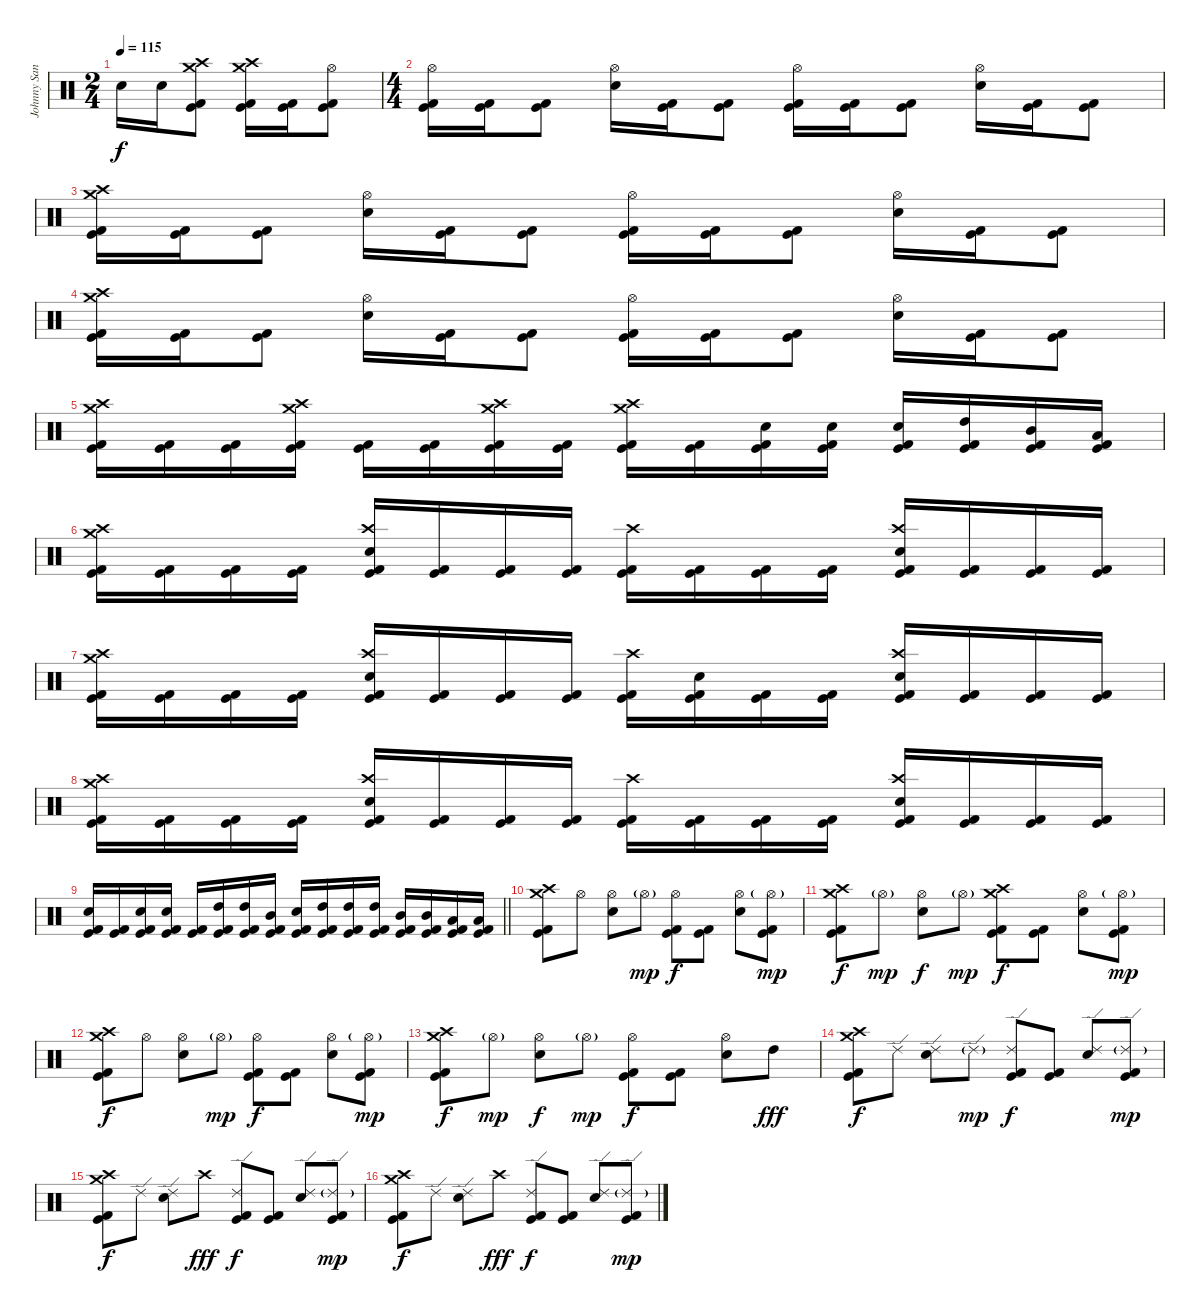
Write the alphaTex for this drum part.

\track ("Johnny Sandin" "Johnny San") {instrument percussion}
\staff {score}
\articulation defaults
\ts (2 4)
\tempo 115
\clef neutral
\ks c "Snare (hit) 2".16{dy f} "Snare (hit) 2".16
("Crash medium (hit)" "Crash high (hit)" "Kick (hit) 2" "Kick (hit)").8 ("Crash medium (hit)" "Crash high (hit)" "Kick (hit) 2" "Kick (hit)").16 ("Kick (hit) 2" "Kick (hit)").16 ("Hi-Hat (open)" "Kick (hit) 2" "Kick (hit)").8 |
\ts (4 4)
("Hi-Hat (open)" "Kick (hit) 2" "Kick (hit)").16 ("Kick (hit) 2" "Kick (hit)").16 ("Kick (hit) 2" "Kick (hit)").8 ("Hi-Hat (open)" "Snare (hit) 2").16 ("Kick (hit) 2" "Kick (hit)").16 ("Kick (hit) 2" "Kick (hit)").8 ("Hi-Hat (open)" "Kick (hit) 2" "Kick (hit)").16 ("Kick (hit) 2" "Kick (hit)").16 ("Kick (hit) 2" "Kick (hit)").8 ("Hi-Hat (open)" "Snare (hit) 2").16 ("Kick (hit) 2" "Kick (hit)").16 ("Kick (hit) 2" "Kick (hit)").8 |
("Crash medium (hit)" "Crash high (hit)" "Kick (hit) 2" "Kick (hit)").16 ("Kick (hit) 2" "Kick (hit)").16 ("Kick (hit) 2" "Kick (hit)").8 ("Hi-Hat (open)" "Snare (hit) 2").16 ("Kick (hit) 2" "Kick (hit)").16 ("Kick (hit) 2" "Kick (hit)").8 ("Hi-Hat (open)" "Kick (hit) 2" "Kick (hit)").16 ("Kick (hit) 2" "Kick (hit)").16 ("Kick (hit) 2" "Kick (hit)").8 ("Hi-Hat (open)" "Snare (hit) 2").16 ("Kick (hit) 2" "Kick (hit)").16 ("Kick (hit) 2" "Kick (hit)").8 |
("Crash medium (hit)" "Crash high (hit)" "Kick (hit) 2" "Kick (hit)").16 ("Kick (hit) 2" "Kick (hit)").16 ("Kick (hit) 2" "Kick (hit)").8 ("Hi-Hat (open)" "Snare (hit) 2").16 ("Kick (hit) 2" "Kick (hit)").16 ("Kick (hit) 2" "Kick (hit)").8 ("Hi-Hat (open)" "Kick (hit) 2" "Kick (hit)").16 ("Kick (hit) 2" "Kick (hit)").16 ("Kick (hit) 2" "Kick (hit)").8 ("Hi-Hat (open)" "Snare (hit) 2").16 ("Kick (hit) 2" "Kick (hit)").16 ("Kick (hit) 2" "Kick (hit)").8 |
("Crash medium (hit)" "Crash high (hit)" "Kick (hit) 2" "Kick (hit)").16 ("Kick (hit) 2" "Kick (hit)").16 ("Kick (hit) 2" "Kick (hit)").16 ("Crash medium (hit)" "Crash high (hit)" "Kick (hit) 2" "Kick (hit)").16 ("Kick (hit) 2" "Kick (hit)").16 ("Kick (hit) 2" "Kick (hit)").16 ("Crash medium (hit)" "Crash high (hit)" "Kick (hit) 2" "Kick (hit)").16 ("Kick (hit) 2" "Kick (hit)").16 ("Crash medium (hit)" "Crash high (hit)" "Kick (hit) 2" "Kick (hit)").16 ("Kick (hit) 2" "Kick (hit)").16 ("Snare (hit) 2" "Kick (hit) 2" "Kick (hit)").16 ("Snare (hit) 2" "Kick (hit) 2" "Kick (hit)").16 ("Snare (hit) 2" "Kick (hit) 2" "Kick (hit)").16 ("High Tom (hit)" "Kick (hit) 2" "Kick (hit)").16 ("Mid Tom (hit)" "Kick (hit) 2" "Kick (hit)").16 ("Low Tom (hit)" "Kick (hit) 2" "Kick (hit)").16 |
("Crash medium (hit)" "Crash high (hit)" "Kick (hit) 2" "Kick (hit)").16 ("Kick (hit) 2" "Kick (hit)").16 ("Kick (hit) 2" "Kick (hit)").16 ("Kick (hit) 2" "Kick (hit)").16 ("Crash high (hit)" "Snare (hit) 2" "Kick (hit) 2" "Kick (hit)").16 ("Kick (hit) 2" "Kick (hit)").16 ("Kick (hit) 2" "Kick (hit)").16 ("Kick (hit) 2" "Kick (hit)").16 ("Crash high (hit)" "Kick (hit) 2" "Kick (hit)").16 ("Kick (hit) 2" "Kick (hit)").16 ("Kick (hit) 2" "Kick (hit)").16 ("Kick (hit) 2" "Kick (hit)").16 ("Crash high (hit)" "Snare (hit) 2" "Kick (hit) 2" "Kick (hit)").16 ("Kick (hit) 2" "Kick (hit)").16 ("Kick (hit) 2" "Kick (hit)").16 ("Kick (hit) 2" "Kick (hit)").16 |
("Crash medium (hit)" "Crash high (hit)" "Kick (hit) 2" "Kick (hit)").16 ("Kick (hit) 2" "Kick (hit)").16 ("Kick (hit) 2" "Kick (hit)").16 ("Kick (hit) 2" "Kick (hit)").16 ("Crash high (hit)" "Snare (hit) 2" "Kick (hit) 2" "Kick (hit)").16 ("Kick (hit) 2" "Kick (hit)").16 ("Kick (hit) 2" "Kick (hit)").16 ("Kick (hit) 2" "Kick (hit)").16 ("Crash high (hit)" "Kick (hit) 2" "Kick (hit)").16 ("Snare (hit) 2" "Kick (hit) 2" "Kick (hit)").16 ("Kick (hit) 2" "Kick (hit)").16 ("Kick (hit) 2" "Kick (hit)").16 ("Crash high (hit)" "Snare (hit) 2" "Kick (hit) 2" "Kick (hit)").16 ("Kick (hit) 2" "Kick (hit)").16 ("Kick (hit) 2" "Kick (hit)").16 ("Kick (hit) 2" "Kick (hit)").16 |
("Crash medium (hit)" "Crash high (hit)" "Kick (hit) 2" "Kick (hit)").16 ("Kick (hit) 2" "Kick (hit)").16 ("Kick (hit) 2" "Kick (hit)").16 ("Kick (hit) 2" "Kick (hit)").16 ("Crash high (hit)" "Snare (hit) 2" "Kick (hit) 2" "Kick (hit)").16 ("Kick (hit) 2" "Kick (hit)").16 ("Kick (hit) 2" "Kick (hit)").16 ("Kick (hit) 2" "Kick (hit)").16 ("Crash high (hit)" "Kick (hit) 2" "Kick (hit)").16 ("Kick (hit) 2" "Kick (hit)").16 ("Kick (hit) 2" "Kick (hit)").16 ("Kick (hit) 2" "Kick (hit)").16 ("Crash high (hit)" "Snare (hit) 2" "Kick (hit) 2" "Kick (hit)").16 ("Kick (hit) 2" "Kick (hit)").16 ("Kick (hit) 2" "Kick (hit)").16 ("Kick (hit) 2" "Kick (hit)").16 |
\barLineRight lightlight
("Snare (hit) 2" "Kick (hit) 2" "Kick (hit)").16 ("Kick (hit) 2" "Kick (hit)").16 ("Snare (hit) 2" "Kick (hit) 2" "Kick (hit)").16 ("Snare (hit) 2" "Kick (hit) 2" "Kick (hit)").16 ("Kick (hit) 2" "Kick (hit)").16 ("High Tom (hit)" "Kick (hit) 2" "Kick (hit)").16 ("High Tom (hit)" "Kick (hit) 2" "Kick (hit)").16 ("Mid Tom (hit)" "Kick (hit) 2" "Kick (hit)").16 ("Snare (hit) 2" "Kick (hit) 2" "Kick (hit)").16 ("High Tom (hit)" "Kick (hit) 2" "Kick (hit)").16 ("High Tom (hit)" "Kick (hit) 2" "Kick (hit)").16 ("High Tom (hit)" "Kick (hit) 2" "Kick (hit)").16 ("Mid Tom (hit)" "Kick (hit) 2" "Kick (hit)").16 ("Mid Tom (hit)" "Kick (hit) 2" "Kick (hit)").16 ("Low Tom (hit)" "Kick (hit) 2" "Kick (hit)").16 ("Low Tom (hit)" "Kick (hit) 2" "Kick (hit)").16 |
("Crash medium (hit)" "Crash high (hit)" "Kick (hit) 2" "Kick (hit)").8 "Hi-Hat (open)".8 ("Hi-Hat (open)" "Snare (hit) 2").8 "Hi-Hat (open)"{g}.8{dy mp} ("Hi-Hat (open)" "Kick (hit) 2" "Kick (hit)").8{dy f} ("Kick (hit) 2" "Kick (hit)").8 ("Hi-Hat (open)" "Snare (hit) 2").8 ("Hi-Hat (open)"{g} "Kick (hit) 2" "Kick (hit)").8{dy mp} |
("Crash medium (hit)" "Crash high (hit)" "Kick (hit) 2" "Kick (hit)").8{dy f} "Hi-Hat (open)"{g}.8{dy mp} ("Hi-Hat (open)" "Snare (hit) 2").8{dy f} "Hi-Hat (open)"{g}.8{dy mp} ("Crash medium (hit)" "Crash high (hit)" "Kick (hit) 2" "Kick (hit)").8{dy f} ("Kick (hit) 2" "Kick (hit)").8 ("Hi-Hat (open)" "Snare (hit) 2").8 ("Hi-Hat (open)"{g} "Kick (hit) 2" "Kick (hit)").8{dy mp} |
("Crash medium (hit)" "Crash high (hit)" "Kick (hit) 2" "Kick (hit)").8{dy f} "Hi-Hat (open)".8 ("Hi-Hat (open)" "Snare (hit) 2").8 "Hi-Hat (open)"{g}.8{dy mp} ("Hi-Hat (open)" "Kick (hit) 2" "Kick (hit)").8{dy f} ("Kick (hit) 2" "Kick (hit)").8 ("Hi-Hat (open)" "Snare (hit) 2").8 ("Hi-Hat (open)"{g} "Kick (hit) 2" "Kick (hit)").8{dy mp} |
("Crash medium (hit)" "Crash high (hit)" "Kick (hit) 2" "Kick (hit)").8{dy f} "Hi-Hat (open)"{g}.8{dy mp} ("Hi-Hat (open)" "Snare (hit) 2").8{dy f} "Hi-Hat (open)"{g}.8{dy mp} ("Hi-Hat (open)" "Kick (hit) 2" "Kick (hit)").8{dy f} ("Kick (hit) 2" "Kick (hit)").8 ("Hi-Hat (open)" "Snare (hit) 2").8 "High Tom (hit)".8{dy fff} |
("Crash medium (hit)" "Crash high (hit)" "Kick (hit) 2" "Kick (hit)").8{dy f} "Ride (edge) 2".8 ("Ride (edge) 2" "Snare (hit) 2").8 "Ride (edge) 2"{g}.8{dy mp} ("Ride (edge) 2" "Kick (hit) 2" "Kick (hit)").8{dy f} ("Kick (hit) 2" "Kick (hit)").8 ("Ride (edge) 2" "Snare (hit) 2").8 ("Ride (edge) 2"{g} "Kick (hit) 2" "Kick (hit)").8{dy mp} |
("Crash medium (hit)" "Crash high (hit)" "Kick (hit) 2" "Kick (hit)").8{dy f} "Ride (edge) 2".8 ("Ride (edge) 2" "Snare (hit) 2").8 "Crash high (hit)".8{dy fff} ("Ride (edge) 2" "Kick (hit) 2" "Kick (hit)").8{dy f} ("Kick (hit) 2" "Kick (hit)").8 ("Ride (edge) 2" "Snare (hit) 2").8 ("Ride (edge) 2"{g} "Kick (hit) 2" "Kick (hit)").8{dy mp} |
("Crash medium (hit)" "Crash high (hit)" "Kick (hit) 2" "Kick (hit)").8{dy f} "Ride (edge) 2".8 ("Ride (edge) 2" "Snare (hit) 2").8 "Crash high (hit)".8{dy fff} ("Ride (edge) 2" "Kick (hit) 2" "Kick (hit)").8{dy f} ("Kick (hit) 2" "Kick (hit)").8 ("Ride (edge) 2" "Snare (hit) 2").8 ("Ride (edge) 2"{g} "Kick (hit) 2" "Kick (hit)").8{dy mp}
